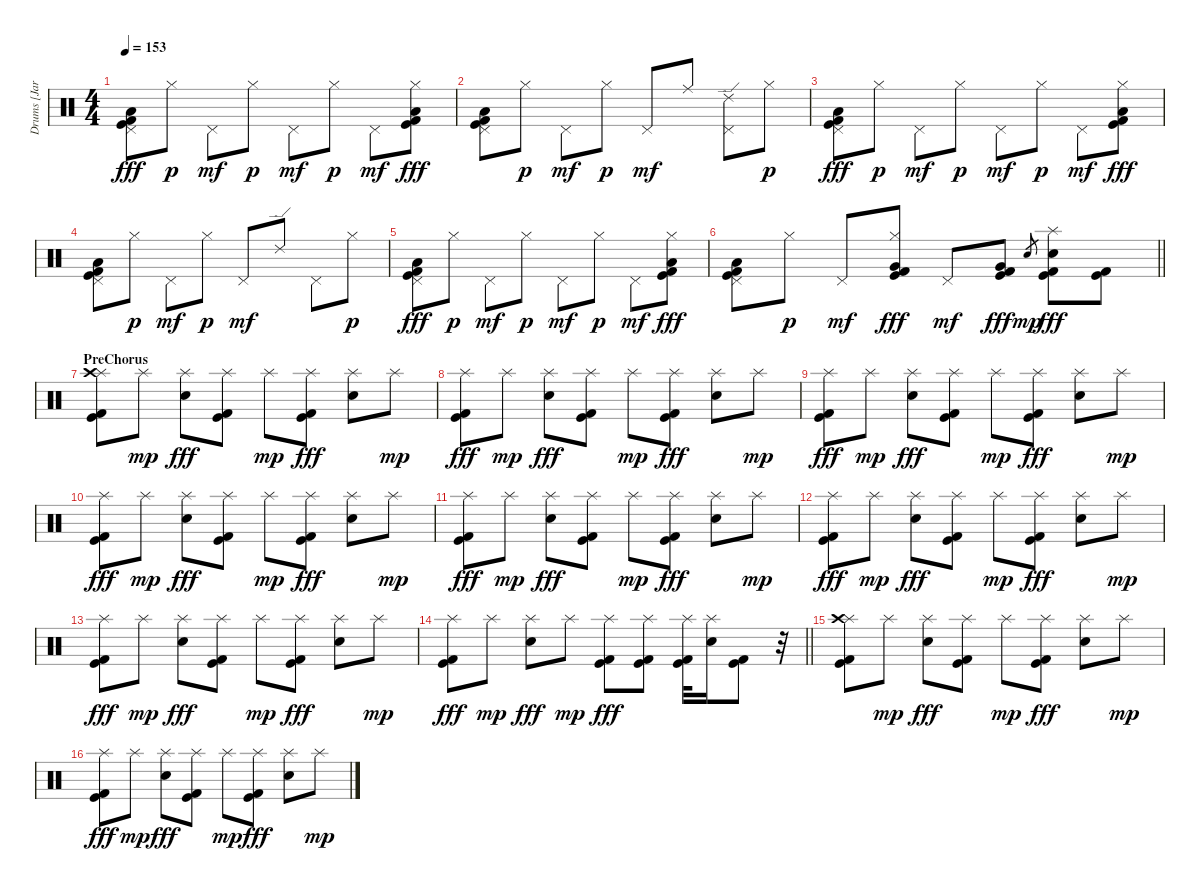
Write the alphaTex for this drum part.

\track ("Drums [Jari]" "Drums [Jar") {instrument percussion}
\staff {score}
\articulation defaults
\ts (4 4)
\tempo 153
\clef neutral
\ks c
("Kick (hit) 2" "Low Floor Tom (hit)" "Pedal Hi-Hat (hit)" "Kick (hit)").8{dy fff} "Hi-Hat (closed)".8{dy p} "Pedal Hi-Hat (hit)".8{dy mf} "Hi-Hat (closed)".8{dy p} "Pedal Hi-Hat (hit)".8{dy mf} "Hi-Hat (closed)".8{dy p} "Pedal Hi-Hat (hit)".8{dy mf} ("Kick (hit) 2" "Low Floor Tom (hit)" "Hi-Hat (closed)" "Kick (hit)").8{dy fff} |
("Kick (hit) 2" "Low Floor Tom (hit)" "Pedal Hi-Hat (hit)" "Kick (hit)").8 "Hi-Hat (closed)".8{dy p} "Pedal Hi-Hat (hit)".8{dy mf} "Hi-Hat (closed)".8{dy p} "Pedal Hi-Hat (hit)".8{dy mf} "Ride (middle)".8 ("Ride (edge) 2" "Pedal Hi-Hat (hit)").8 "Hi-Hat (closed)".8{dy p} |
("Kick (hit) 2" "Low Floor Tom (hit)" "Pedal Hi-Hat (hit)" "Kick (hit)").8{dy fff} "Hi-Hat (closed)".8{dy p} "Pedal Hi-Hat (hit)".8{dy mf} "Hi-Hat (closed)".8{dy p} "Pedal Hi-Hat (hit)".8{dy mf} "Hi-Hat (closed)".8{dy p} "Pedal Hi-Hat (hit)".8{dy mf} ("Kick (hit) 2" "Low Floor Tom (hit)" "Hi-Hat (closed)" "Kick (hit)").8{dy fff} |
("Kick (hit) 2" "Low Floor Tom (hit)" "Pedal Hi-Hat (hit)" "Kick (hit)").8 "Hi-Hat (closed)".8{dy p} "Pedal Hi-Hat (hit)".8{dy mf} "Hi-Hat (closed)".8{dy p} "Pedal Hi-Hat (hit)".8{dy mf} "Ride (edge) 2".8 "Pedal Hi-Hat (hit)".8 "Hi-Hat (closed)".8{dy p} |
("Kick (hit) 2" "Low Floor Tom (hit)" "Pedal Hi-Hat (hit)" "Kick (hit)").8{dy fff} "Hi-Hat (closed)".8{dy p} "Pedal Hi-Hat (hit)".8{dy mf} "Hi-Hat (closed)".8{dy p} "Pedal Hi-Hat (hit)".8{dy mf} "Hi-Hat (closed)".8{dy p} "Pedal Hi-Hat (hit)".8{dy mf} ("Kick (hit) 2" "Low Floor Tom (hit)" "Hi-Hat (closed)" "Kick (hit)").8{dy fff} |
\barLineRight lightlight
("Kick (hit) 2" "Low Floor Tom (hit)" "Pedal Hi-Hat (hit)" "Kick (hit)").8 "Hi-Hat (closed)".8{dy p} "Pedal Hi-Hat (hit)".8{dy mf} ("Kick (hit) 2" "Very Low Tom (hit)" "Hi-Hat (closed)" "Kick (hit)").8{dy fff} "Pedal Hi-Hat (hit)".8{dy mf} ("Kick (hit) 2" "Very Low Tom (hit)" "Kick (hit)").8{dy fff} "Electric Snare (hit)".8{gr dy mp} ("Kick (hit) 2" "Electric Snare (hit)" "Splash (hit)" "Kick (hit)").8{dy fff} ("Kick (hit) 2" "Kick (hit)").8 |
\section ("" "PreChorus")
("Kick (hit) 2" "Splash (hit)" "Crash high (hit)" "Kick (hit)").8 "Splash (hit)".8{dy mp} ("Splash (hit)" "Electric Snare (hit)").8{dy fff} ("Kick (hit) 2" "Splash (hit)" "Kick (hit)").8 "Splash (hit)".8{dy mp} ("Kick (hit) 2" "Splash (hit)" "Kick (hit)").8{dy fff} ("Splash (hit)" "Electric Snare (hit)").8 "Splash (hit)".8{dy mp} |
("Kick (hit) 2" "Splash (hit)" "Kick (hit)").8{dy fff} "Splash (hit)".8{dy mp} ("Splash (hit)" "Electric Snare (hit)").8{dy fff} ("Kick (hit) 2" "Splash (hit)" "Kick (hit)").8 "Splash (hit)".8{dy mp} ("Kick (hit) 2" "Splash (hit)" "Kick (hit)").8{dy fff} ("Splash (hit)" "Electric Snare (hit)").8 "Splash (hit)".8{dy mp} |
("Kick (hit) 2" "Splash (hit)" "Kick (hit)").8{dy fff} "Splash (hit)".8{dy mp} ("Splash (hit)" "Electric Snare (hit)").8{dy fff} ("Kick (hit) 2" "Splash (hit)" "Kick (hit)").8 "Splash (hit)".8{dy mp} ("Kick (hit) 2" "Splash (hit)" "Kick (hit)").8{dy fff} ("Splash (hit)" "Electric Snare (hit)").8 "Splash (hit)".8{dy mp} |
("Kick (hit) 2" "Splash (hit)" "Kick (hit)").8{dy fff} "Splash (hit)".8{dy mp} ("Splash (hit)" "Electric Snare (hit)").8{dy fff} ("Kick (hit) 2" "Splash (hit)" "Kick (hit)").8 "Splash (hit)".8{dy mp} ("Kick (hit) 2" "Splash (hit)" "Kick (hit)").8{dy fff} ("Splash (hit)" "Electric Snare (hit)").8 "Splash (hit)".8{dy mp} |
("Kick (hit) 2" "Splash (hit)" "Kick (hit)").8{dy fff} "Splash (hit)".8{dy mp} ("Splash (hit)" "Electric Snare (hit)").8{dy fff} ("Kick (hit) 2" "Splash (hit)" "Kick (hit)").8 "Splash (hit)".8{dy mp} ("Kick (hit) 2" "Splash (hit)" "Kick (hit)").8{dy fff} ("Splash (hit)" "Electric Snare (hit)").8 "Splash (hit)".8{dy mp} |
("Kick (hit) 2" "Splash (hit)" "Kick (hit)").8{dy fff} "Splash (hit)".8{dy mp} ("Splash (hit)" "Electric Snare (hit)").8{dy fff} ("Kick (hit) 2" "Splash (hit)" "Kick (hit)").8 "Splash (hit)".8{dy mp} ("Kick (hit) 2" "Splash (hit)" "Kick (hit)").8{dy fff} ("Splash (hit)" "Electric Snare (hit)").8 "Splash (hit)".8{dy mp} |
("Kick (hit) 2" "Splash (hit)" "Kick (hit)").8{dy fff} "Splash (hit)".8{dy mp} ("Splash (hit)" "Electric Snare (hit)").8{dy fff} ("Kick (hit) 2" "Splash (hit)" "Kick (hit)").8 "Splash (hit)".8{dy mp} ("Kick (hit) 2" "Splash (hit)" "Kick (hit)").8{dy fff} ("Splash (hit)" "Electric Snare (hit)").8 "Splash (hit)".8{dy mp} |
\barLineRight lightlight
("Kick (hit) 2" "Splash (hit)" "Kick (hit)").8{dy fff} "Splash (hit)".8{dy mp} ("Splash (hit)" "Electric Snare (hit)").8{dy fff} "Splash (hit)".8{dy mp} ("Kick (hit) 2" "Splash (hit)" "Kick (hit)").8{dy fff} ("Kick (hit) 2" "Splash (hit)" "Kick (hit)").8 ("Kick (hit) 2" "Splash (hit)" "Kick (hit)").32 ("Splash (hit)" "Electric Snare (hit)").16 ("Kick (hit) 2" "Kick (hit)").8 r.32 |
("Kick (hit) 2" "Splash (hit)" "Crash high (hit)" "Kick (hit)").8 "Splash (hit)".8{dy mp} ("Splash (hit)" "Electric Snare (hit)").8{dy fff} ("Kick (hit) 2" "Splash (hit)" "Kick (hit)").8 "Splash (hit)".8{dy mp} ("Kick (hit) 2" "Splash (hit)" "Kick (hit)").8{dy fff} ("Splash (hit)" "Electric Snare (hit)").8 "Splash (hit)".8{dy mp} |
("Kick (hit) 2" "Splash (hit)" "Kick (hit)").8{dy fff} "Splash (hit)".8{dy mp} ("Splash (hit)" "Electric Snare (hit)").8{dy fff} ("Kick (hit) 2" "Splash (hit)" "Kick (hit)").8 "Splash (hit)".8{dy mp} ("Kick (hit) 2" "Splash (hit)" "Kick (hit)").8{dy fff} ("Splash (hit)" "Electric Snare (hit)").8 "Splash (hit)".8{dy mp}
